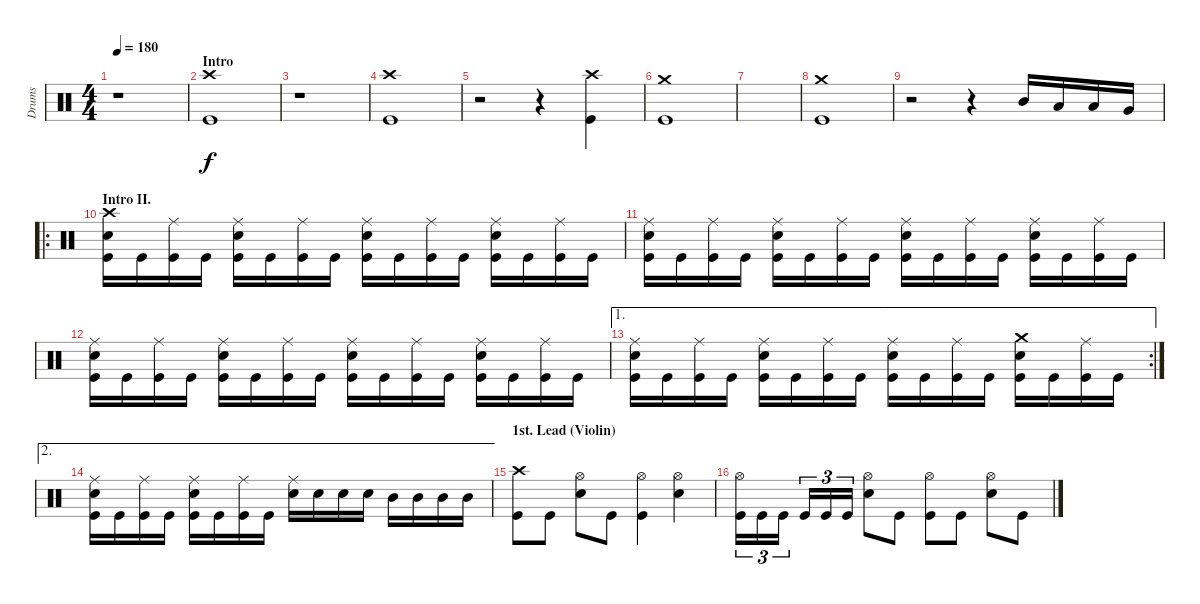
\track ("Drums" "Drums") {instrument percussion}
\staff {score}
\articulation defaults
\ts (4 4)
\tempo 180
\clef neutral
\ks c
r.1{dy f} |
\section ("" "Intro")
("Crash high (hit)" "Kick (hit)").1 |
r.1 |
("Crash high (hit)" "Kick (hit)").1 |
r.2 r.4 ("Crash high (hit)" "Kick (hit)").4 |
("Crash medium (hit)" "Kick (hit)").1 |
|
("Crash medium (hit)" "Kick (hit)").1 |
r.2 r.4 "Mid Tom (hit)".16 "Low Tom (hit)".16 "Low Tom (hit)".16 "Very Low Tom (hit)".16 |
\ro
\section ("" "Intro II.")
("Crash high (hit)" "Electric Snare (hit)" "Kick (hit)").16 "Kick (hit)".16 ("Ride (middle)" "Kick (hit)").16 "Kick (hit)".16 ("Ride (middle)" "Electric Snare (hit)" "Kick (hit)").16 "Kick (hit)".16 ("Ride (middle)" "Kick (hit)").16 "Kick (hit)".16 ("Ride (middle)" "Electric Snare (hit)" "Kick (hit)").16 "Kick (hit)".16 ("Ride (middle)" "Kick (hit)").16 "Kick (hit)".16 ("Ride (middle)" "Electric Snare (hit)" "Kick (hit)").16 "Kick (hit)".16 ("Ride (middle)" "Kick (hit)").16 "Kick (hit)".16 |
("Ride (middle)" "Electric Snare (hit)" "Kick (hit)").16 "Kick (hit)".16 ("Ride (middle)" "Kick (hit)").16 "Kick (hit)".16 ("Ride (middle)" "Electric Snare (hit)" "Kick (hit)").16 "Kick (hit)".16 ("Ride (middle)" "Kick (hit)").16 "Kick (hit)".16 ("Ride (middle)" "Electric Snare (hit)" "Kick (hit)").16 "Kick (hit)".16 ("Ride (middle)" "Kick (hit)").16 "Kick (hit)".16 ("Ride (middle)" "Electric Snare (hit)" "Kick (hit)").16 "Kick (hit)".16 ("Ride (middle)" "Kick (hit)").16 "Kick (hit)".16 |
("Ride (middle)" "Electric Snare (hit)" "Kick (hit)").16 "Kick (hit)".16 ("Ride (middle)" "Kick (hit)").16 "Kick (hit)".16 ("Ride (middle)" "Electric Snare (hit)" "Kick (hit)").16 "Kick (hit)".16 ("Ride (middle)" "Kick (hit)").16 "Kick (hit)".16 ("Ride (middle)" "Electric Snare (hit)" "Kick (hit)").16 "Kick (hit)".16 ("Ride (middle)" "Kick (hit)").16 "Kick (hit)".16 ("Ride (middle)" "Electric Snare (hit)" "Kick (hit)").16 "Kick (hit)".16 ("Ride (middle)" "Kick (hit)").16 "Kick (hit)".16 |
\ae 1
\rc 2
("Ride (middle)" "Electric Snare (hit)" "Kick (hit)").16 "Kick (hit)".16 ("Ride (middle)" "Kick (hit)").16 "Kick (hit)".16 ("Ride (middle)" "Electric Snare (hit)" "Kick (hit)").16 "Kick (hit)".16 ("Ride (middle)" "Kick (hit)").16 "Kick (hit)".16 ("Ride (middle)" "Electric Snare (hit)" "Kick (hit)").16 "Kick (hit)".16 ("Ride (middle)" "Kick (hit)").16 "Kick (hit)".16 ("Crash medium (hit)" "Electric Snare (hit)" "Kick (hit)").16 "Kick (hit)".16 ("Ride (middle)" "Kick (hit)").16 "Kick (hit)".16 |
\ae 2
("Ride (middle)" "Electric Snare (hit)" "Kick (hit)").16 "Kick (hit)".16 ("Ride (middle)" "Kick (hit)").16 "Kick (hit)".16 ("Ride (middle)" "Electric Snare (hit)" "Kick (hit)").16 "Kick (hit)".16 ("Ride (middle)" "Kick (hit)").16 "Kick (hit)".16 ("Ride (middle)" "Electric Snare (hit)").16 "Electric Snare (hit)".16 "Electric Snare (hit)".16 "Electric Snare (hit)".16 "Mid Tom (hit)".16 "Mid Tom (hit)".16 "Mid Tom (hit)".16 "Mid Tom (hit)".16 |
\section ("" "1st. Lead (Violin)")
("Crash high (hit)" "Kick (hit)").8 "Kick (hit)".8 ("Hi-Hat (open)" "Electric Snare (hit)").8 "Kick (hit)".8 ("Hi-Hat (open)" "Kick (hit)").4 ("Hi-Hat (open)" "Electric Snare (hit)").4 |
("Hi-Hat (open)" "Kick (hit)").16{tu (3 2)} "Kick (hit)".16{tu (3 2)} "Kick (hit)".16{tu (3 2)} "Kick (hit)".16{tu (3 2)} "Kick (hit)".16{tu (3 2)} "Kick (hit)".16{tu (3 2)} ("Hi-Hat (open)" "Electric Snare (hit)").8 "Kick (hit)".8 ("Hi-Hat (open)" "Kick (hit)").8 "Kick (hit)".8 ("Hi-Hat (open)" "Electric Snare (hit)").8 "Kick (hit)".8
